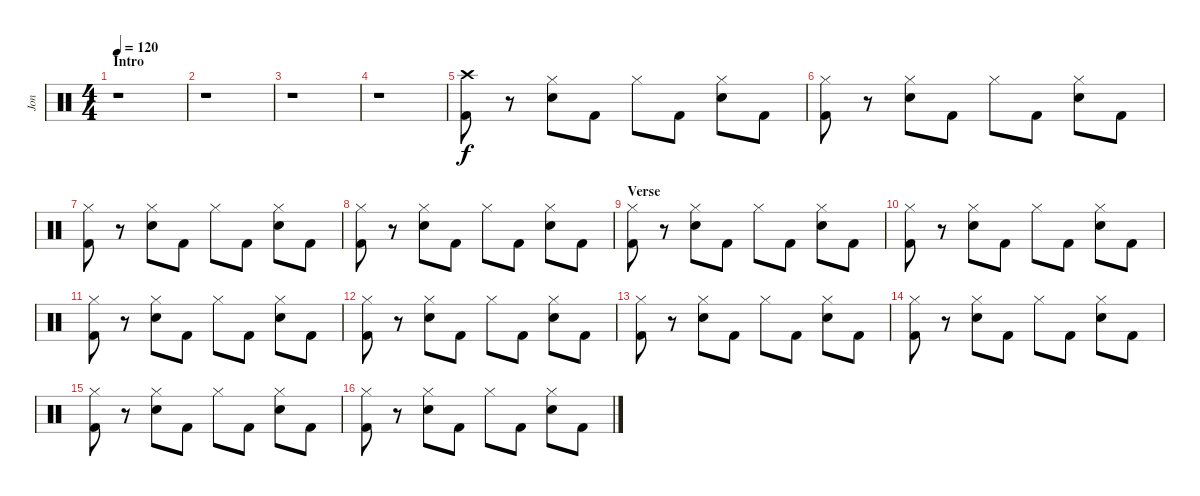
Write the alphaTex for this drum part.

\track ("Jon" "Jon") {instrument percussion}
\staff {score}
\articulation defaults
\ts (4 4)
\section ("" "Intro")
\tempo 120
\clef neutral
\ks c
r.1{dy f} |
r.1 |
r.1 |
r.1 |
("Crash high (hit)" "Kick (hit) 2").8 r.8 ("Hi-Hat (closed)" "Electric Snare (hit)").8 "Kick (hit) 2".8 "Hi-Hat (closed)".8 "Kick (hit) 2".8 ("Hi-Hat (closed)" "Electric Snare (hit)").8 "Kick (hit) 2".8 |
("Hi-Hat (closed)" "Kick (hit) 2").8 r.8 ("Hi-Hat (closed)" "Electric Snare (hit)").8 "Kick (hit) 2".8 "Hi-Hat (closed)".8 "Kick (hit) 2".8 ("Hi-Hat (closed)" "Electric Snare (hit)").8 "Kick (hit) 2".8 |
("Hi-Hat (closed)" "Kick (hit) 2").8 r.8 ("Hi-Hat (closed)" "Electric Snare (hit)").8 "Kick (hit) 2".8 "Hi-Hat (closed)".8 "Kick (hit) 2".8 ("Hi-Hat (closed)" "Electric Snare (hit)").8 "Kick (hit) 2".8 |
("Hi-Hat (closed)" "Kick (hit) 2").8 r.8 ("Hi-Hat (closed)" "Electric Snare (hit)").8 "Kick (hit) 2".8 "Hi-Hat (closed)".8 "Kick (hit) 2".8 ("Hi-Hat (closed)" "Electric Snare (hit)").8 "Kick (hit) 2".8 |
\section ("" "Verse")
("Hi-Hat (closed)" "Kick (hit) 2").8 r.8 ("Hi-Hat (closed)" "Electric Snare (hit)").8 "Kick (hit) 2".8 "Hi-Hat (closed)".8 "Kick (hit) 2".8 ("Hi-Hat (closed)" "Electric Snare (hit)").8 "Kick (hit) 2".8 |
("Hi-Hat (closed)" "Kick (hit) 2").8 r.8 ("Hi-Hat (closed)" "Electric Snare (hit)").8 "Kick (hit) 2".8 "Hi-Hat (closed)".8 "Kick (hit) 2".8 ("Hi-Hat (closed)" "Electric Snare (hit)").8 "Kick (hit) 2".8 |
("Hi-Hat (closed)" "Kick (hit) 2").8 r.8 ("Hi-Hat (closed)" "Electric Snare (hit)").8 "Kick (hit) 2".8 "Hi-Hat (closed)".8 "Kick (hit) 2".8 ("Hi-Hat (closed)" "Electric Snare (hit)").8 "Kick (hit) 2".8 |
("Hi-Hat (closed)" "Kick (hit) 2").8 r.8 ("Hi-Hat (closed)" "Electric Snare (hit)").8 "Kick (hit) 2".8 "Hi-Hat (closed)".8 "Kick (hit) 2".8 ("Hi-Hat (closed)" "Electric Snare (hit)").8 "Kick (hit) 2".8 |
("Hi-Hat (closed)" "Kick (hit) 2").8 r.8 ("Hi-Hat (closed)" "Electric Snare (hit)").8 "Kick (hit) 2".8 "Hi-Hat (closed)".8 "Kick (hit) 2".8 ("Hi-Hat (closed)" "Electric Snare (hit)").8 "Kick (hit) 2".8 |
("Hi-Hat (closed)" "Kick (hit) 2").8 r.8 ("Hi-Hat (closed)" "Electric Snare (hit)").8 "Kick (hit) 2".8 "Hi-Hat (closed)".8 "Kick (hit) 2".8 ("Hi-Hat (closed)" "Electric Snare (hit)").8 "Kick (hit) 2".8 |
("Hi-Hat (closed)" "Kick (hit) 2").8 r.8 ("Hi-Hat (closed)" "Electric Snare (hit)").8 "Kick (hit) 2".8 "Hi-Hat (closed)".8 "Kick (hit) 2".8 ("Hi-Hat (closed)" "Electric Snare (hit)").8 "Kick (hit) 2".8 |
("Hi-Hat (closed)" "Kick (hit) 2").8 r.8 ("Hi-Hat (closed)" "Electric Snare (hit)").8 "Kick (hit) 2".8 "Hi-Hat (closed)".8 "Kick (hit) 2".8 ("Hi-Hat (closed)" "Electric Snare (hit)").8 "Kick (hit) 2".8
